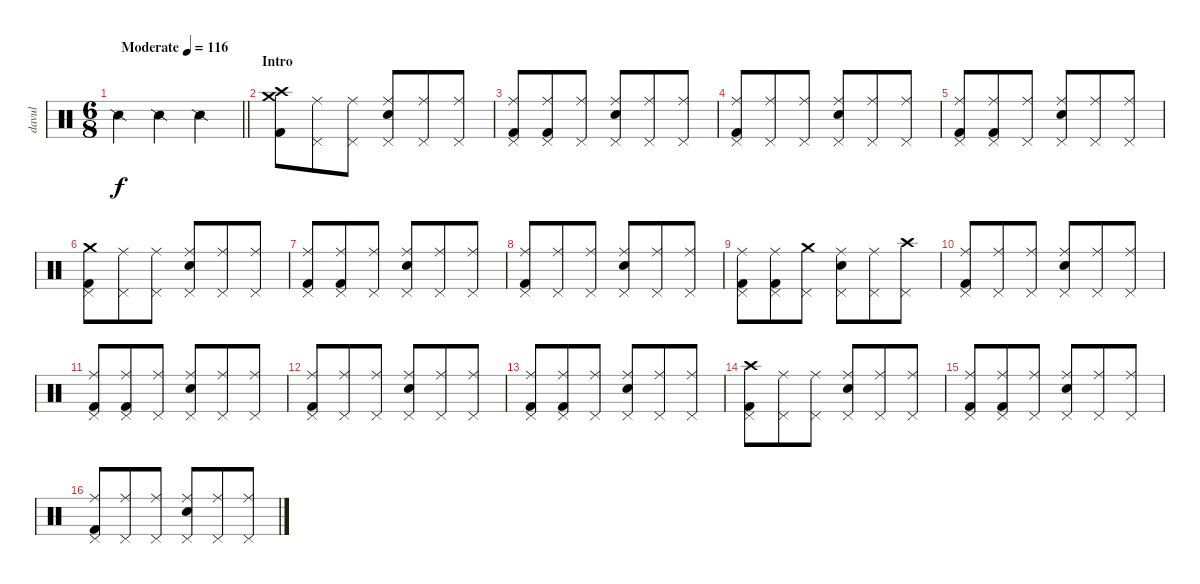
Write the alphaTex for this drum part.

\track ("davul" "davul") {instrument percussion}
\staff {score}
\articulation defaults
\ts (6 8)
\tempo (116 "Moderate")
\clef neutral
\barLineRight lightlight
\ks c "Snare (side stick) 2".4{dy f} "Snare (side stick) 2".4 "Snare (side stick) 2".4
|
\section ("" "Intro")
("Crash high (hit)" "Crash medium (hit)" "Kick (hit) 2").8 ("Ride (middle)" "Pedal Hi-Hat (hit)").8 ("Ride (middle)" "Pedal Hi-Hat (hit)").8 ("Ride (middle)" "Electric Snare (hit)" "Pedal Hi-Hat (hit)").8 ("Ride (middle)" "Pedal Hi-Hat (hit)").8 ("Ride (middle)" "Pedal Hi-Hat (hit)").8 |
("Ride (middle)" "Kick (hit) 2" "Pedal Hi-Hat (hit)").8 ("Ride (middle)" "Kick (hit) 2" "Pedal Hi-Hat (hit)").8 ("Ride (middle)" "Pedal Hi-Hat (hit)").8 ("Ride (middle)" "Electric Snare (hit)" "Pedal Hi-Hat (hit)").8 ("Ride (middle)" "Pedal Hi-Hat (hit)").8 ("Ride (middle)" "Pedal Hi-Hat (hit)").8 |
("Ride (middle)" "Kick (hit) 2" "Pedal Hi-Hat (hit)").8 ("Ride (middle)" "Pedal Hi-Hat (hit)").8 ("Ride (middle)" "Pedal Hi-Hat (hit)").8 ("Ride (middle)" "Electric Snare (hit)" "Pedal Hi-Hat (hit)").8 ("Ride (middle)" "Pedal Hi-Hat (hit)").8 ("Ride (middle)" "Pedal Hi-Hat (hit)").8 |
("Ride (middle)" "Kick (hit) 2" "Pedal Hi-Hat (hit)").8 ("Ride (middle)" "Kick (hit) 2" "Pedal Hi-Hat (hit)").8 ("Ride (middle)" "Pedal Hi-Hat (hit)").8 ("Ride (middle)" "Electric Snare (hit)" "Pedal Hi-Hat (hit)").8 ("Ride (middle)" "Pedal Hi-Hat (hit)").8 ("Ride (middle)" "Pedal Hi-Hat (hit)").8 |
("Crash medium (hit)" "Kick (hit) 2" "Pedal Hi-Hat (hit)").8 ("Ride (middle)" "Pedal Hi-Hat (hit)").8 ("Ride (middle)" "Pedal Hi-Hat (hit)").8 ("Ride (middle)" "Electric Snare (hit)" "Pedal Hi-Hat (hit)").8 ("Ride (middle)" "Pedal Hi-Hat (hit)").8 ("Ride (middle)" "Pedal Hi-Hat (hit)").8 |
("Ride (middle)" "Kick (hit) 2" "Pedal Hi-Hat (hit)").8 ("Ride (middle)" "Kick (hit) 2" "Pedal Hi-Hat (hit)").8 ("Ride (middle)" "Pedal Hi-Hat (hit)").8 ("Ride (middle)" "Electric Snare (hit)" "Pedal Hi-Hat (hit)").8 ("Ride (middle)" "Pedal Hi-Hat (hit)").8 ("Ride (middle)" "Pedal Hi-Hat (hit)").8 |
("Ride (middle)" "Kick (hit) 2" "Pedal Hi-Hat (hit)").8 ("Ride (middle)" "Pedal Hi-Hat (hit)").8 ("Ride (middle)" "Pedal Hi-Hat (hit)").8 ("Ride (middle)" "Electric Snare (hit)" "Pedal Hi-Hat (hit)").8 ("Ride (middle)" "Pedal Hi-Hat (hit)").8 ("Ride (middle)" "Pedal Hi-Hat (hit)").8 |
("Ride (middle)" "Kick (hit) 2" "Pedal Hi-Hat (hit)").8 ("Ride (middle)" "Kick (hit) 2" "Pedal Hi-Hat (hit)").8 ("Crash medium (hit)" "Pedal Hi-Hat (hit)").8 ("Ride (middle)" "Electric Snare (hit)" "Pedal Hi-Hat (hit)").8 ("Ride (middle)" "Pedal Hi-Hat (hit)").8 ("Crash high (hit)" "Pedal Hi-Hat (hit)").8 |
("Ride (middle)" "Kick (hit) 2" "Pedal Hi-Hat (hit)").8 ("Ride (middle)" "Pedal Hi-Hat (hit)").8 ("Ride (middle)" "Pedal Hi-Hat (hit)").8 ("Ride (middle)" "Electric Snare (hit)" "Pedal Hi-Hat (hit)").8 ("Ride (middle)" "Pedal Hi-Hat (hit)").8 ("Ride (middle)" "Pedal Hi-Hat (hit)").8 |
("Ride (middle)" "Kick (hit) 2" "Pedal Hi-Hat (hit)").8 ("Ride (middle)" "Kick (hit) 2" "Pedal Hi-Hat (hit)").8 ("Ride (middle)" "Pedal Hi-Hat (hit)").8 ("Ride (middle)" "Electric Snare (hit)" "Pedal Hi-Hat (hit)").8 ("Ride (middle)" "Pedal Hi-Hat (hit)").8 ("Ride (middle)" "Pedal Hi-Hat (hit)").8 |
("Ride (middle)" "Kick (hit) 2" "Pedal Hi-Hat (hit)").8 ("Ride (middle)" "Pedal Hi-Hat (hit)").8 ("Ride (middle)" "Pedal Hi-Hat (hit)").8 ("Ride (middle)" "Electric Snare (hit)" "Pedal Hi-Hat (hit)").8 ("Ride (middle)" "Pedal Hi-Hat (hit)").8 ("Ride (middle)" "Pedal Hi-Hat (hit)").8 |
("Ride (middle)" "Kick (hit) 2" "Pedal Hi-Hat (hit)").8 ("Ride (middle)" "Kick (hit) 2" "Pedal Hi-Hat (hit)").8 ("Ride (middle)" "Pedal Hi-Hat (hit)").8 ("Ride (middle)" "Electric Snare (hit)" "Pedal Hi-Hat (hit)").8 ("Ride (middle)" "Pedal Hi-Hat (hit)").8 ("Ride (middle)" "Pedal Hi-Hat (hit)").8 |
("Crash high (hit)" "Kick (hit) 2" "Pedal Hi-Hat (hit)").8 ("Ride (middle)" "Pedal Hi-Hat (hit)").8 ("Ride (middle)" "Pedal Hi-Hat (hit)").8 ("Ride (middle)" "Electric Snare (hit)" "Pedal Hi-Hat (hit)").8 ("Ride (middle)" "Pedal Hi-Hat (hit)").8 ("Ride (middle)" "Pedal Hi-Hat (hit)").8 |
("Ride (middle)" "Kick (hit) 2" "Pedal Hi-Hat (hit)").8 ("Ride (middle)" "Kick (hit) 2" "Pedal Hi-Hat (hit)").8 ("Ride (middle)" "Pedal Hi-Hat (hit)").8 ("Ride (middle)" "Electric Snare (hit)" "Pedal Hi-Hat (hit)").8 ("Ride (middle)" "Pedal Hi-Hat (hit)").8 ("Ride (middle)" "Pedal Hi-Hat (hit)").8 |
("Ride (middle)" "Kick (hit) 2" "Pedal Hi-Hat (hit)").8 ("Ride (middle)" "Pedal Hi-Hat (hit)").8 ("Ride (middle)" "Pedal Hi-Hat (hit)").8 ("Ride (middle)" "Electric Snare (hit)" "Pedal Hi-Hat (hit)").8 ("Ride (middle)" "Pedal Hi-Hat (hit)").8 ("Ride (middle)" "Pedal Hi-Hat (hit)").8
